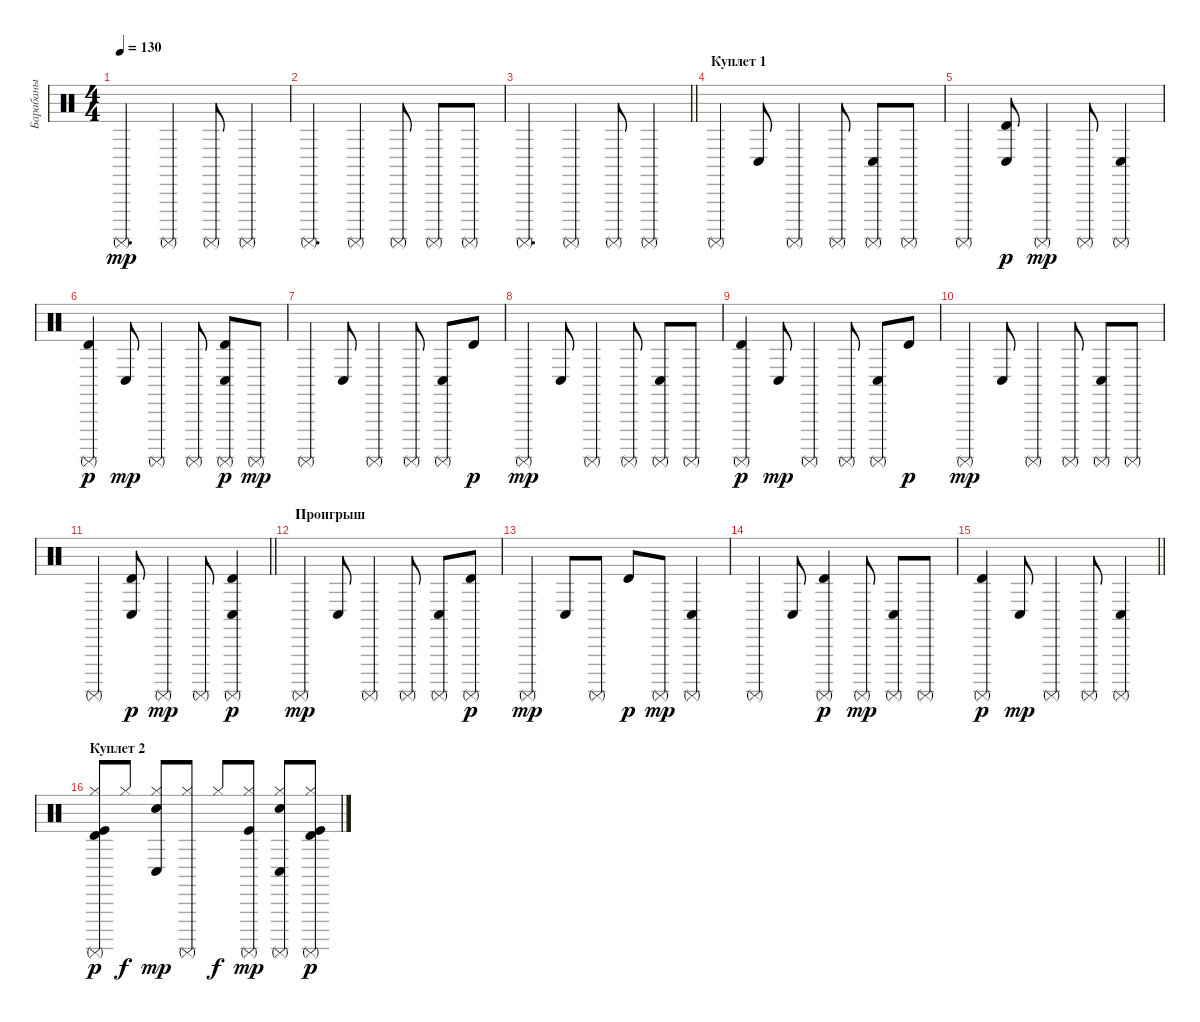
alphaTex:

\track ("Барабаны" "Барабаны") {instrument percussion}
\staff {score}
\articulation defaults
\ts (4 4)
\tempo 130
\clef neutral
\ks c "Surdo (mute)".4{d dy mp} "Surdo (mute)".4 "Surdo (mute)".8 "Surdo (mute)".4
|
"Surdo (mute)".4{d} "Surdo (mute)".4 "Surdo (mute)".8 "Surdo (mute)".8 "Surdo (mute)".8 |
\barLineRight lightlight "Surdo (mute)".4{d} "Surdo (mute)".4 "Surdo (mute)".8 "Surdo (mute)".4
|
\section ("" "Куплет 1")
"Surdo (mute)".4 "Conga low (hit)".8 "Surdo (mute)".4 "Surdo (mute)".8 ("Surdo (mute)" "Conga low (hit)").8 "Surdo (mute)".8 |
"Surdo (mute)".4 ("Conga low (hit)" "Timbale high (hit)").8{dy p} "Surdo (mute)".4{dy mp} "Surdo (mute)".8 ("Surdo (mute)" "Conga low (hit)").4 |
("Surdo (mute)" "Timbale high (hit)").4{dy p} "Conga low (hit)".8{dy mp} "Surdo (mute)".4 "Surdo (mute)".8 ("Surdo (mute)" "Conga low (hit)" "Timbale high (hit)").8{dy p} "Surdo (mute)".8{dy mp} |
"Surdo (mute)".4 "Conga low (hit)".8 "Surdo (mute)".4 "Surdo (mute)".8 ("Surdo (mute)" "Conga low (hit)").8 "Timbale high (hit)".8{dy p} |
"Surdo (mute)".4{dy mp} "Conga low (hit)".8 "Surdo (mute)".4 "Surdo (mute)".8 ("Surdo (mute)" "Conga low (hit)").8 "Surdo (mute)".8 |
("Surdo (mute)" "Timbale high (hit)").4{dy p} "Conga low (hit)".8{dy mp} "Surdo (mute)".4 "Surdo (mute)".8 ("Surdo (mute)" "Conga low (hit)").8 "Timbale high (hit)".8{dy p} |
"Surdo (mute)".4{dy mp} "Conga low (hit)".8 "Surdo (mute)".4 "Surdo (mute)".8 ("Surdo (mute)" "Conga low (hit)").8 "Surdo (mute)".8 |
\barLineRight lightlight "Surdo (mute)".4
("Conga low (hit)" "Timbale high (hit)").8{dy p} "Surdo (mute)".4{dy mp} "Surdo (mute)".8 ("Surdo (mute)" "Conga low (hit)" "Timbale high (hit)").4{dy p} |
\section ("" "Проигрыш")
"Surdo (mute)".4{dy mp} "Conga low (hit)".8 "Surdo (mute)".4 "Surdo (mute)".8 ("Surdo (mute)" "Conga low (hit)").8 ("Surdo (mute)" "Timbale high (hit)").8{dy p} |
"Surdo (mute)".4{dy mp} "Conga low (hit)".8 "Surdo (mute)".8 "Timbale high (hit)".8{dy p} "Surdo (mute)".8{dy mp} ("Surdo (mute)" "Conga low (hit)").4 |
"Surdo (mute)".4 "Conga low (hit)".8 ("Surdo (mute)" "Timbale high (hit)").4{dy p} "Surdo (mute)".8{dy mp} ("Surdo (mute)" "Conga low (hit)").8 "Surdo (mute)".8 |
\barLineRight lightlight
("Surdo (mute)" "Timbale high (hit)").4{dy p} "Conga low (hit)".8{dy mp} "Surdo (mute)".4 "Surdo (mute)".8 ("Surdo (mute)" "Conga low (hit)").4 |
\section ("" "Куплет 2")
("Surdo (mute)" "Kick (hit)" "Hi-Hat (closed)" "Timbale high (hit)").8{dy p} "Hi-Hat (closed)".8{dy f} ("Snare (hit) 2" "Hi-Hat (closed)" "Conga low (hit)").8{dy mp} ("Surdo (mute)" "Hi-Hat (closed)").8 "Hi-Hat (closed)".8{dy f} ("Surdo (mute)" "Kick (hit)" "Hi-Hat (closed)").8{dy mp} ("Surdo (mute)" "Snare (hit) 2" "Hi-Hat (closed)" "Conga low (hit)").8 ("Surdo (mute)" "Kick (hit)" "Hi-Hat (closed)" "Timbale high (hit)").8{dy p}
